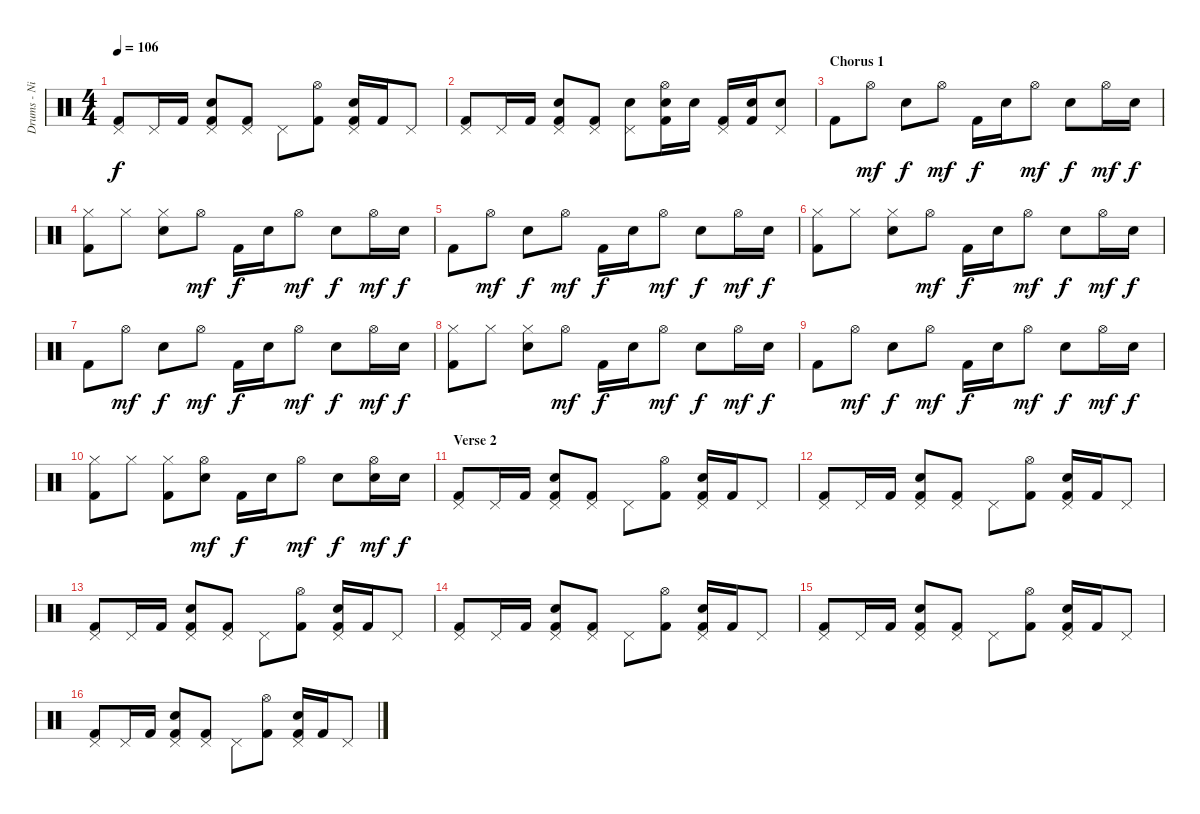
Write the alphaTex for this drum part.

\track ("Drums - Nick Van Gelder" "Drums - Ni") {instrument percussion}
\staff {score}
\articulation defaults
\ts (4 4)
\tempo 106
\clef neutral
\ks c
("Pedal Hi-Hat (hit)" "Kick (hit) 2").8{dy f} "Pedal Hi-Hat (hit)".16 "Kick (hit) 2".16 ("Pedal Hi-Hat (hit)" "Electric Snare (hit)" "Kick (hit) 2").8 ("Pedal Hi-Hat (hit)" "Kick (hit) 2").8 "Pedal Hi-Hat (hit)".8 ("Hi-Hat (open)" "Kick (hit) 2").8 ("Pedal Hi-Hat (hit)" "Electric Snare (hit)" "Kick (hit) 2").16 "Kick (hit) 2".16 "Pedal Hi-Hat (hit)".8 |
("Pedal Hi-Hat (hit)" "Kick (hit) 2").8 "Pedal Hi-Hat (hit)".16 "Kick (hit) 2".16 ("Pedal Hi-Hat (hit)" "Electric Snare (hit)" "Kick (hit) 2").8 ("Pedal Hi-Hat (hit)" "Kick (hit) 2").8 ("Pedal Hi-Hat (hit)" "Electric Snare (hit)").8 ("Hi-Hat (open)" "Electric Snare (hit)" "Kick (hit) 2").16 "Electric Snare (hit)".16 ("Pedal Hi-Hat (hit)" "Kick (hit) 2").16 ("Electric Snare (hit)" "Kick (hit) 2").16 ("Pedal Hi-Hat (hit)" "Electric Snare (hit)").8 |
\section ("" "Chorus 1")
"Kick (hit) 2".8 "Hi-Hat (open)".8{dy mf} "Electric Snare (hit)".8{dy f} "Hi-Hat (open)".8{dy mf} "Kick (hit) 2".16{dy f} "Electric Snare (hit)".16 "Hi-Hat (open)".8{dy mf} "Electric Snare (hit)".8{dy f} "Hi-Hat (open)".16{dy mf} "Electric Snare (hit)".16{dy f} |
("Hi-Hat (closed)" "Kick (hit) 2").8 "Hi-Hat (closed)".8 ("Hi-Hat (closed)" "Electric Snare (hit)").8 "Hi-Hat (open)".8{dy mf} "Kick (hit) 2".16{dy f} "Electric Snare (hit)".16 "Hi-Hat (open)".8{dy mf} "Electric Snare (hit)".8{dy f} "Hi-Hat (open)".16{dy mf} "Electric Snare (hit)".16{dy f} |
"Kick (hit) 2".8 "Hi-Hat (open)".8{dy mf} "Electric Snare (hit)".8{dy f} "Hi-Hat (open)".8{dy mf} "Kick (hit) 2".16{dy f} "Electric Snare (hit)".16 "Hi-Hat (open)".8{dy mf} "Electric Snare (hit)".8{dy f} "Hi-Hat (open)".16{dy mf} "Electric Snare (hit)".16{dy f} |
("Hi-Hat (closed)" "Kick (hit) 2").8 "Hi-Hat (closed)".8 ("Hi-Hat (closed)" "Electric Snare (hit)").8 "Hi-Hat (open)".8{dy mf} "Kick (hit) 2".16{dy f} "Electric Snare (hit)".16 "Hi-Hat (open)".8{dy mf} "Electric Snare (hit)".8{dy f} "Hi-Hat (open)".16{dy mf} "Electric Snare (hit)".16{dy f} |
"Kick (hit) 2".8 "Hi-Hat (open)".8{dy mf} "Electric Snare (hit)".8{dy f} "Hi-Hat (open)".8{dy mf} "Kick (hit) 2".16{dy f} "Electric Snare (hit)".16 "Hi-Hat (open)".8{dy mf} "Electric Snare (hit)".8{dy f} "Hi-Hat (open)".16{dy mf} "Electric Snare (hit)".16{dy f} |
("Hi-Hat (closed)" "Kick (hit) 2").8 "Hi-Hat (closed)".8 ("Hi-Hat (closed)" "Electric Snare (hit)").8 "Hi-Hat (open)".8{dy mf} "Kick (hit) 2".16{dy f} "Electric Snare (hit)".16 "Hi-Hat (open)".8{dy mf} "Electric Snare (hit)".8{dy f} "Hi-Hat (open)".16{dy mf} "Electric Snare (hit)".16{dy f} |
"Kick (hit) 2".8 "Hi-Hat (open)".8{dy mf} "Electric Snare (hit)".8{dy f} "Hi-Hat (open)".8{dy mf} "Kick (hit) 2".16{dy f} "Electric Snare (hit)".16 "Hi-Hat (open)".8{dy mf} "Electric Snare (hit)".8{dy f} "Hi-Hat (open)".16{dy mf} "Electric Snare (hit)".16{dy f} |
("Hi-Hat (closed)" "Kick (hit) 2").8 "Hi-Hat (closed)".8 ("Hi-Hat (closed)" "Kick (hit) 2").8 ("Hi-Hat (open)" "Electric Snare (hit)").8{dy mf} "Kick (hit) 2".16{dy f} "Electric Snare (hit)".16 "Hi-Hat (open)".8{dy mf} "Electric Snare (hit)".8{dy f} ("Hi-Hat (open)" "Electric Snare (hit)").16{dy mf} "Electric Snare (hit)".16{dy f} |
\section ("" "Verse 2")
("Pedal Hi-Hat (hit)" "Kick (hit) 2").8 "Pedal Hi-Hat (hit)".16 "Kick (hit) 2".16 ("Pedal Hi-Hat (hit)" "Electric Snare (hit)" "Kick (hit) 2").8 ("Pedal Hi-Hat (hit)" "Kick (hit) 2").8 "Pedal Hi-Hat (hit)".8 ("Hi-Hat (open)" "Kick (hit) 2").8 ("Pedal Hi-Hat (hit)" "Electric Snare (hit)" "Kick (hit) 2").16 "Kick (hit) 2".16 "Pedal Hi-Hat (hit)".8 |
("Pedal Hi-Hat (hit)" "Kick (hit) 2").8 "Pedal Hi-Hat (hit)".16 "Kick (hit) 2".16 ("Pedal Hi-Hat (hit)" "Electric Snare (hit)" "Kick (hit) 2").8 ("Pedal Hi-Hat (hit)" "Kick (hit) 2").8 "Pedal Hi-Hat (hit)".8 ("Hi-Hat (open)" "Kick (hit) 2").8 ("Pedal Hi-Hat (hit)" "Electric Snare (hit)" "Kick (hit) 2").16 "Kick (hit) 2".16 "Pedal Hi-Hat (hit)".8 |
("Pedal Hi-Hat (hit)" "Kick (hit) 2").8 "Pedal Hi-Hat (hit)".16 "Kick (hit) 2".16 ("Pedal Hi-Hat (hit)" "Electric Snare (hit)" "Kick (hit) 2").8 ("Pedal Hi-Hat (hit)" "Kick (hit) 2").8 "Pedal Hi-Hat (hit)".8 ("Hi-Hat (open)" "Kick (hit) 2").8 ("Pedal Hi-Hat (hit)" "Electric Snare (hit)" "Kick (hit) 2").16 "Kick (hit) 2".16 "Pedal Hi-Hat (hit)".8 |
("Pedal Hi-Hat (hit)" "Kick (hit) 2").8 "Pedal Hi-Hat (hit)".16 "Kick (hit) 2".16 ("Pedal Hi-Hat (hit)" "Electric Snare (hit)" "Kick (hit) 2").8 ("Pedal Hi-Hat (hit)" "Kick (hit) 2").8 "Pedal Hi-Hat (hit)".8 ("Hi-Hat (open)" "Kick (hit) 2").8 ("Pedal Hi-Hat (hit)" "Electric Snare (hit)" "Kick (hit) 2").16 "Kick (hit) 2".16 "Pedal Hi-Hat (hit)".8 |
("Pedal Hi-Hat (hit)" "Kick (hit) 2").8 "Pedal Hi-Hat (hit)".16 "Kick (hit) 2".16 ("Pedal Hi-Hat (hit)" "Electric Snare (hit)" "Kick (hit) 2").8 ("Pedal Hi-Hat (hit)" "Kick (hit) 2").8 "Pedal Hi-Hat (hit)".8 ("Hi-Hat (open)" "Kick (hit) 2").8 ("Pedal Hi-Hat (hit)" "Electric Snare (hit)" "Kick (hit) 2").16 "Kick (hit) 2".16 "Pedal Hi-Hat (hit)".8 |
("Pedal Hi-Hat (hit)" "Kick (hit) 2").8 "Pedal Hi-Hat (hit)".16 "Kick (hit) 2".16 ("Pedal Hi-Hat (hit)" "Electric Snare (hit)" "Kick (hit) 2").8 ("Pedal Hi-Hat (hit)" "Kick (hit) 2").8 "Pedal Hi-Hat (hit)".8 ("Hi-Hat (open)" "Kick (hit) 2").8 ("Pedal Hi-Hat (hit)" "Electric Snare (hit)" "Kick (hit) 2").16 "Kick (hit) 2".16 "Pedal Hi-Hat (hit)".8
